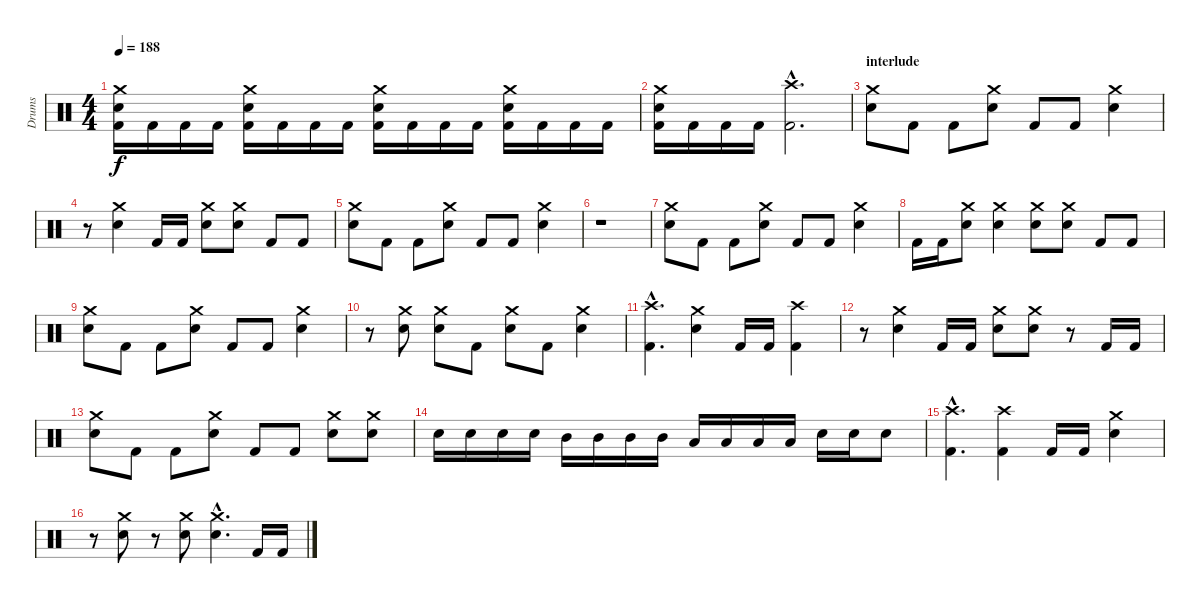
\track ("Drums" "Drums") {instrument percussion}
\staff {score}
\articulation defaults
\ts (4 4)
\tempo 188
\clef neutral
\ks c
("Crash medium (hit)" "Electric Snare (hit)" "Kick (hit) 2").16{dy f} "Kick (hit) 2".16 "Kick (hit) 2".16 "Kick (hit) 2".16 ("Crash medium (hit)" "Electric Snare (hit)" "Kick (hit) 2").16 "Kick (hit) 2".16 "Kick (hit) 2".16 "Kick (hit) 2".16 ("Crash medium (hit)" "Electric Snare (hit)" "Kick (hit) 2").16 "Kick (hit) 2".16 "Kick (hit) 2".16 "Kick (hit) 2".16 ("Crash medium (hit)" "Electric Snare (hit)" "Kick (hit) 2").16 "Kick (hit) 2".16 "Kick (hit) 2".16 "Kick (hit) 2".16 |
("Crash medium (hit)" "Electric Snare (hit)" "Kick (hit) 2").16 "Kick (hit) 2".16 "Kick (hit) 2".16 "Kick (hit) 2".16 ("Crash high (hit)"{hac} "Kick (hit) 2"{hac}).2{d} |
\section ("" "interlude")
("Crash medium (hit)" "Electric Snare (hit)").8 "Kick (hit) 2".8 "Kick (hit) 2".8 ("Crash medium (hit)" "Electric Snare (hit)").8 "Kick (hit) 2".8 "Kick (hit) 2".8 ("Crash medium (hit)" "Electric Snare (hit)").4 |
r.8 ("Crash medium (hit)" "Electric Snare (hit)").4 "Kick (hit) 2".16 "Kick (hit) 2".16 ("Crash medium (hit)" "Electric Snare (hit)").8 ("Crash medium (hit)" "Electric Snare (hit)").8 "Kick (hit) 2".8 "Kick (hit) 2".8 |
("Crash medium (hit)" "Electric Snare (hit)").8 "Kick (hit) 2".8 "Kick (hit) 2".8 ("Crash medium (hit)" "Electric Snare (hit)").8 "Kick (hit) 2".8 "Kick (hit) 2".8 ("Crash medium (hit)" "Electric Snare (hit)").4 |
r.1 |
("Crash medium (hit)" "Electric Snare (hit)").8 "Kick (hit) 2".8 "Kick (hit) 2".8 ("Crash medium (hit)" "Electric Snare (hit)").8 "Kick (hit) 2".8 "Kick (hit) 2".8 ("Crash medium (hit)" "Electric Snare (hit)").4 |
"Kick (hit) 2".16 "Kick (hit) 2".16 ("Crash medium (hit)" "Electric Snare (hit)").8 ("Crash medium (hit)" "Electric Snare (hit)").4 ("Crash medium (hit)" "Electric Snare (hit)").8 ("Crash medium (hit)" "Electric Snare (hit)").8 "Kick (hit) 2".8 "Kick (hit) 2".8 |
("Crash medium (hit)" "Electric Snare (hit)").8 "Kick (hit) 2".8 "Kick (hit) 2".8 ("Crash medium (hit)" "Electric Snare (hit)").8 "Kick (hit) 2".8 "Kick (hit) 2".8 ("Crash medium (hit)" "Electric Snare (hit)").4 |
r.8 ("Crash medium (hit)" "Electric Snare (hit)").8 ("Crash medium (hit)" "Electric Snare (hit)").8 "Kick (hit) 2".8 ("Crash medium (hit)" "Electric Snare (hit)").8 "Kick (hit) 2".8 ("Crash medium (hit)" "Electric Snare (hit)").4 |
("Crash high (hit)"{hac} "Kick (hit) 2"{hac}).4{d} ("Crash medium (hit)" "Electric Snare (hit)").4 "Kick (hit) 2".16 "Kick (hit) 2".16 ("Crash high (hit)" "Kick (hit) 2").4 |
r.8 ("Crash medium (hit)" "Electric Snare (hit)").4 "Kick (hit) 2".16 "Kick (hit) 2".16 ("Crash medium (hit)" "Electric Snare (hit)").8 ("Crash medium (hit)" "Electric Snare (hit)").8 r.8 "Kick (hit) 2".16 "Kick (hit) 2".16 |
("Crash medium (hit)" "Electric Snare (hit)").8 "Kick (hit) 2".8 "Kick (hit) 2".8 ("Crash medium (hit)" "Electric Snare (hit)").8 "Kick (hit) 2".8 "Kick (hit) 2".8 ("Crash medium (hit)" "Electric Snare (hit)").8 ("Crash medium (hit)" "Electric Snare (hit)").8 |
"Electric Snare (hit)".16 "Electric Snare (hit)".16 "Electric Snare (hit)".16 "Electric Snare (hit)".16 "Mid Tom (hit)".16 "Mid Tom (hit)".16 "Mid Tom (hit)".16 "Mid Tom (hit)".16 "Low Tom (hit)".16 "Low Tom (hit)".16 "Low Tom (hit)".16 "Low Tom (hit)".16 "Electric Snare (hit)".16 "Electric Snare (hit)".16 "Electric Snare (hit)".8 |
("Crash high (hit)"{hac} "Kick (hit) 2"{hac}).4{d} ("Crash high (hit)" "Kick (hit) 2").4 "Kick (hit) 2".16 "Kick (hit) 2".16 ("Crash medium (hit)" "Electric Snare (hit)").4 |
r.8 ("Crash medium (hit)" "Electric Snare (hit)").8 r.8 ("Crash medium (hit)" "Electric Snare (hit)").8 ("Crash medium (hit)"{hac} "Electric Snare (hit)"{hac}).4{d} "Kick (hit) 2".16 "Kick (hit) 2".16
